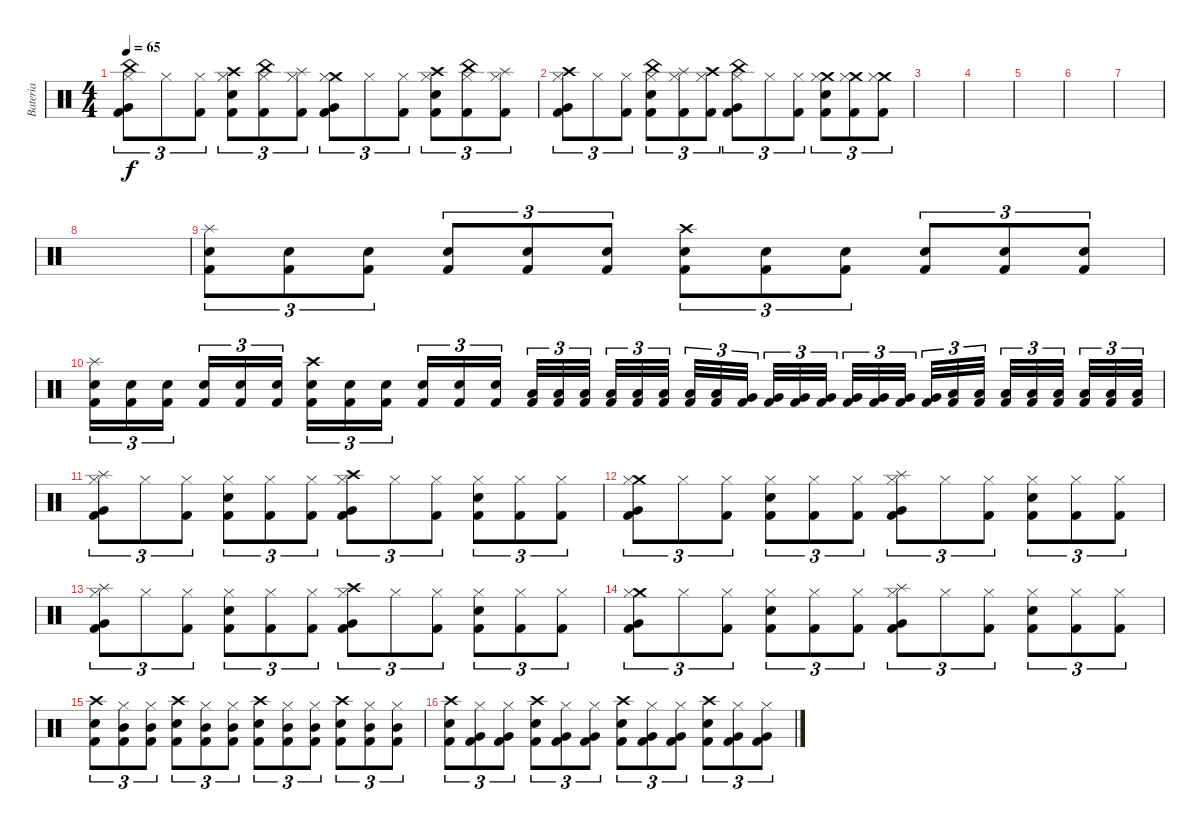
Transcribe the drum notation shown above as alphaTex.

\track ("Bateria" "Bateria") {instrument percussion}
\staff {score}
\articulation defaults
\ts (4 4)
\tempo 65
\clef neutral
\ks c
("Kick (hit) 2" "China (hit)" "Very Low Tom (hit)" "Hi-Hat (closed)").8{tu (3 2) dy f} "Hi-Hat (closed)".8{tu (3 2)} ("Kick (hit) 2" "Hi-Hat (closed)").8{tu (3 2)} ("Snare (hit) 2" "Kick (hit) 2" "Crash high (hit)" "Hi-Hat (closed)").8{tu (3 2)} ("China (hit)" "Kick (hit) 2" "Hi-Hat (closed)").8{tu (3 2)} ("Splash (hit)" "Kick (hit) 2" "Hi-Hat (closed)").8{tu (3 2)} ("Kick (hit) 2" "Crash medium (hit)" "Very Low Tom (hit)" "Hi-Hat (closed)").8{tu (3 2)} "Hi-Hat (closed)".8{tu (3 2)} ("Kick (hit) 2" "Hi-Hat (closed)").8{tu (3 2)} ("Snare (hit) 2" "Kick (hit) 2" "Crash high (hit)" "Hi-Hat (closed)").8{tu (3 2)} ("China (hit)" "Kick (hit) 2" "Hi-Hat (closed)").8{tu (3 2)} ("Splash (hit)" "Kick (hit) 2" "Hi-Hat (closed)").8{tu (3 2)} |
("Kick (hit) 2" "Crash high (hit)" "Very Low Tom (hit)" "Hi-Hat (closed)").8{tu (3 2)} "Hi-Hat (closed)".8{tu (3 2)} ("Kick (hit) 2" "Hi-Hat (closed)").8{tu (3 2)} ("Snare (hit) 2" "Kick (hit) 2" "China (hit)" "Hi-Hat (closed)").8{tu (3 2)} ("Splash (hit)" "Kick (hit) 2" "Hi-Hat (closed)").8{tu (3 2)} ("Crash high (hit)" "Kick (hit) 2" "Hi-Hat (closed)").8{tu (3 2)} ("Kick (hit) 2" "China (hit)" "Very Low Tom (hit)" "Hi-Hat (closed)").8{tu (3 2)} "Hi-Hat (closed)".8{tu (3 2)} ("Kick (hit) 2" "Hi-Hat (closed)").8{tu (3 2)} ("Snare (hit) 2" "Kick (hit) 2" "Crash medium (hit)" "Hi-Hat (closed)").8{tu (3 2)} ("Crash medium (hit)" "Kick (hit) 2" "Hi-Hat (closed)").8{tu (3 2)} ("Crash medium (hit)" "Kick (hit) 2" "Hi-Hat (closed)").8{tu (3 2)} |
|
|
|
|
|
|
("Snare (hit) 2" "Splash (hit)" "Kick (hit) 2").8{tu (3 2)} ("Snare (hit) 2" "Kick (hit) 2").8{tu (3 2)} ("Snare (hit) 2" "Kick (hit) 2").8{tu (3 2)} ("Snare (hit) 2" "Kick (hit) 2").8{tu (3 2)} ("Snare (hit) 2" "Kick (hit) 2").8{tu (3 2)} ("Snare (hit) 2" "Kick (hit) 2").8{tu (3 2)} ("Snare (hit) 2" "Crash high (hit)" "Kick (hit) 2").8{tu (3 2)} ("Snare (hit) 2" "Kick (hit) 2").8{tu (3 2)} ("Snare (hit) 2" "Kick (hit) 2").8{tu (3 2)} ("Snare (hit) 2" "Kick (hit) 2").8{tu (3 2)} ("Snare (hit) 2" "Kick (hit) 2").8{tu (3 2)} ("Snare (hit) 2" "Kick (hit) 2").8{tu (3 2)} |
("Snare (hit) 2" "Splash (hit)" "Kick (hit) 2").16{tu (3 2)} ("Snare (hit) 2" "Kick (hit) 2").16{tu (3 2)} ("Snare (hit) 2" "Kick (hit) 2").16{tu (3 2) beam splitsecondary} ("Snare (hit) 2" "Kick (hit) 2").16{tu (3 2)} ("Snare (hit) 2" "Kick (hit) 2").16{tu (3 2)} ("Snare (hit) 2" "Kick (hit) 2").16{tu (3 2)} ("Snare (hit) 2" "Crash high (hit)" "Kick (hit) 2").16{tu (3 2)} ("Snare (hit) 2" "Kick (hit) 2").16{tu (3 2)} ("Snare (hit) 2" "Kick (hit) 2").16{tu (3 2) beam splitsecondary} ("Snare (hit) 2" "Kick (hit) 2").16{tu (3 2)} ("Snare (hit) 2" "Kick (hit) 2").16{tu (3 2)} ("Snare (hit) 2" "Kick (hit) 2").16{tu (3 2)} ("Low Tom (hit)" "Kick (hit) 2").32{tu (3 2)} ("Low Tom (hit)" "Kick (hit) 2").32{tu (3 2)} ("Low Tom (hit)" "Kick (hit) 2").32{tu (3 2) beam splitsecondary} ("Low Tom (hit)" "Kick (hit) 2").32{tu (3 2)} ("Low Tom (hit)" "Kick (hit) 2").32{tu (3 2)} ("Low Tom (hit)" "Kick (hit) 2").32{tu (3 2) beam splitsecondary} ("Low Tom (hit)" "Kick (hit) 2").32{tu (3 2)} ("Low Tom (hit)" "Kick (hit) 2").32{tu (3 2)} ("Very Low Tom (hit)" "Kick (hit) 2").32{tu (3 2) beam splitsecondary} ("Very Low Tom (hit)" "Kick (hit) 2").32{tu (3 2)} ("Very Low Tom (hit)" "Kick (hit) 2").32{tu (3 2)} ("Very Low Tom (hit)" "Kick (hit) 2").32{tu (3 2)} ("Very Low Tom (hit)" "Kick (hit) 2").32{tu (3 2)} ("Very Low Tom (hit)" "Kick (hit) 2").32{tu (3 2)} ("Very Low Tom (hit)" "Kick (hit) 2").32{tu (3 2) beam splitsecondary} ("Very Low Tom (hit)" "Kick (hit) 2").32{tu (3 2)} ("Low Floor Tom (hit)" "Kick (hit) 2").32{tu (3 2)} ("Low Floor Tom (hit)" "Kick (hit) 2").32{tu (3 2) beam splitsecondary} ("Low Floor Tom (hit)" "Kick (hit) 2").32{tu (3 2)} ("Low Floor Tom (hit)" "Kick (hit) 2").32{tu (3 2)} ("Low Floor Tom (hit)" "Kick (hit) 2").32{tu (3 2) beam splitsecondary} ("Low Floor Tom (hit)" "Kick (hit) 2").32{tu (3 2)} ("Low Floor Tom (hit)" "Kick (hit) 2").32{tu (3 2)} ("Low Floor Tom (hit)" "Kick (hit) 2").32{tu (3 2)} |
("Kick (hit) 2" "Splash (hit)" "Very Low Tom (hit)" "Hi-Hat (closed)").8{tu (3 2)} "Hi-Hat (closed)".8{tu (3 2)} ("Kick (hit) 2" "Hi-Hat (closed)").8{tu (3 2)} ("Snare (hit) 2" "Kick (hit) 2" "Hi-Hat (closed)").8{tu (3 2)} ("Kick (hit) 2" "Hi-Hat (closed)").8{tu (3 2)} ("Kick (hit) 2" "Hi-Hat (closed)").8{tu (3 2)} ("Kick (hit) 2" "Crash high (hit)" "Very Low Tom (hit)" "Hi-Hat (closed)").8{tu (3 2)} "Hi-Hat (closed)".8{tu (3 2)} ("Kick (hit) 2" "Hi-Hat (closed)").8{tu (3 2)} ("Snare (hit) 2" "Kick (hit) 2" "Hi-Hat (closed)").8{tu (3 2)} ("Kick (hit) 2" "Hi-Hat (closed)").8{tu (3 2)} ("Kick (hit) 2" "Hi-Hat (closed)").8{tu (3 2)} |
("Kick (hit) 2" "Crash medium (hit)" "Very Low Tom (hit)" "Hi-Hat (closed)").8{tu (3 2)} "Hi-Hat (closed)".8{tu (3 2)} ("Kick (hit) 2" "Hi-Hat (closed)").8{tu (3 2)} ("Snare (hit) 2" "Kick (hit) 2" "Hi-Hat (closed)").8{tu (3 2)} ("Kick (hit) 2" "Hi-Hat (closed)").8{tu (3 2)} ("Kick (hit) 2" "Hi-Hat (closed)").8{tu (3 2)} ("Kick (hit) 2" "Splash (hit)" "Very Low Tom (hit)" "Hi-Hat (closed)").8{tu (3 2)} "Hi-Hat (closed)".8{tu (3 2)} ("Kick (hit) 2" "Hi-Hat (closed)").8{tu (3 2)} ("Snare (hit) 2" "Kick (hit) 2" "Hi-Hat (closed)").8{tu (3 2)} ("Kick (hit) 2" "Hi-Hat (closed)").8{tu (3 2)} ("Kick (hit) 2" "Hi-Hat (closed)").8{tu (3 2)} |
("Kick (hit) 2" "Splash (hit)" "Very Low Tom (hit)" "Hi-Hat (closed)").8{tu (3 2)} "Hi-Hat (closed)".8{tu (3 2)} ("Kick (hit) 2" "Hi-Hat (closed)").8{tu (3 2)} ("Snare (hit) 2" "Kick (hit) 2" "Hi-Hat (closed)").8{tu (3 2)} ("Kick (hit) 2" "Hi-Hat (closed)").8{tu (3 2)} ("Kick (hit) 2" "Hi-Hat (closed)").8{tu (3 2)} ("Kick (hit) 2" "Crash high (hit)" "Very Low Tom (hit)" "Hi-Hat (closed)").8{tu (3 2)} "Hi-Hat (closed)".8{tu (3 2)} ("Kick (hit) 2" "Hi-Hat (closed)").8{tu (3 2)} ("Snare (hit) 2" "Kick (hit) 2" "Hi-Hat (closed)").8{tu (3 2)} ("Kick (hit) 2" "Hi-Hat (closed)").8{tu (3 2)} ("Kick (hit) 2" "Hi-Hat (closed)").8{tu (3 2)} |
("Kick (hit) 2" "Crash medium (hit)" "Very Low Tom (hit)" "Hi-Hat (closed)").8{tu (3 2)} "Hi-Hat (closed)".8{tu (3 2)} ("Kick (hit) 2" "Hi-Hat (closed)").8{tu (3 2)} ("Snare (hit) 2" "Kick (hit) 2" "Hi-Hat (closed)").8{tu (3 2)} ("Kick (hit) 2" "Hi-Hat (closed)").8{tu (3 2)} ("Kick (hit) 2" "Hi-Hat (closed)").8{tu (3 2)} ("Kick (hit) 2" "Splash (hit)" "Very Low Tom (hit)" "Hi-Hat (closed)").8{tu (3 2)} "Hi-Hat (closed)".8{tu (3 2)} ("Kick (hit) 2" "Hi-Hat (closed)").8{tu (3 2)} ("Snare (hit) 2" "Kick (hit) 2" "Hi-Hat (closed)").8{tu (3 2)} ("Kick (hit) 2" "Hi-Hat (closed)").8{tu (3 2)} ("Kick (hit) 2" "Hi-Hat (closed)").8{tu (3 2)} |
("Kick (hit) 2" "Snare (hit) 2" "Crash high (hit)").8{tu (3 2)} ("Kick (hit) 2" "Mid Tom (hit)" "Hi-Hat (closed)").8{tu (3 2)} ("Kick (hit) 2" "Mid Tom (hit)" "Hi-Hat (closed)").8{tu (3 2)} ("Kick (hit) 2" "Snare (hit) 2" "Crash high (hit)").8{tu (3 2)} ("Kick (hit) 2" "Mid Tom (hit)" "Hi-Hat (closed)").8{tu (3 2)} ("Kick (hit) 2" "Mid Tom (hit)" "Hi-Hat (closed)").8{tu (3 2)} ("Kick (hit) 2" "Snare (hit) 2" "Crash high (hit)").8{tu (3 2)} ("Kick (hit) 2" "Mid Tom (hit)" "Hi-Hat (closed)").8{tu (3 2)} ("Kick (hit) 2" "Mid Tom (hit)" "Hi-Hat (closed)").8{tu (3 2)} ("Kick (hit) 2" "Snare (hit) 2" "Crash high (hit)").8{tu (3 2)} ("Kick (hit) 2" "Mid Tom (hit)" "Hi-Hat (closed)").8{tu (3 2)} ("Kick (hit) 2" "Mid Tom (hit)" "Hi-Hat (closed)").8{tu (3 2)} |
("Kick (hit) 2" "Snare (hit) 2" "Crash high (hit)").8{tu (3 2)} ("Kick (hit) 2" "Very Low Tom (hit)" "Hi-Hat (closed)").8{tu (3 2)} ("Kick (hit) 2" "Very Low Tom (hit)" "Hi-Hat (closed)").8{tu (3 2)} ("Kick (hit) 2" "Snare (hit) 2" "Crash high (hit)").8{tu (3 2)} ("Kick (hit) 2" "Very Low Tom (hit)" "Hi-Hat (closed)").8{tu (3 2)} ("Kick (hit) 2" "Very Low Tom (hit)" "Hi-Hat (closed)").8{tu (3 2)} ("Kick (hit) 2" "Snare (hit) 2" "Crash high (hit)").8{tu (3 2)} ("Kick (hit) 2" "Very Low Tom (hit)" "Hi-Hat (closed)").8{tu (3 2)} ("Kick (hit) 2" "Very Low Tom (hit)" "Hi-Hat (closed)").8{tu (3 2)} ("Kick (hit) 2" "Snare (hit) 2" "Crash high (hit)").8{tu (3 2)} ("Kick (hit) 2" "Very Low Tom (hit)" "Hi-Hat (closed)").8{tu (3 2)} ("Kick (hit) 2" "Very Low Tom (hit)" "Hi-Hat (closed)").8{tu (3 2)}
